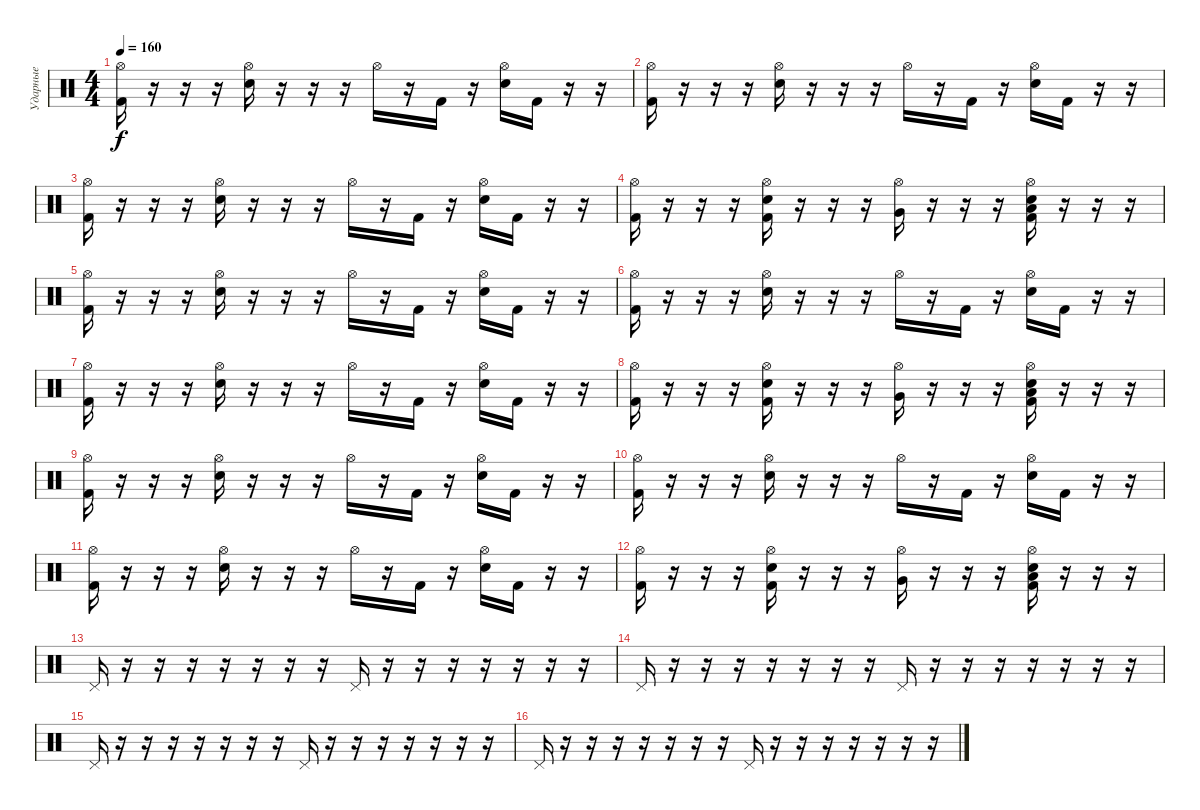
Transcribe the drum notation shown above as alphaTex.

\track ("Ударные" "Ударные") {instrument percussion}
\staff {score}
\articulation defaults
\ts (4 4)
\tempo 160
\clef neutral
\ks c
("Hi-Hat (open)" "Kick (hit) 2").16{dy f} r.16 r.16 r.16 ("Hi-Hat (open)" "Electric Snare (hit)").16 r.16 r.16 r.16 "Hi-Hat (open)".16 r.16 "Kick (hit) 2".16 r.16 ("Hi-Hat (open)" "Electric Snare (hit)").16 "Kick (hit) 2".16 r.16 r.16 |
("Hi-Hat (open)" "Kick (hit) 2").16 r.16 r.16 r.16 ("Hi-Hat (open)" "Electric Snare (hit)").16 r.16 r.16 r.16 "Hi-Hat (open)".16 r.16 "Kick (hit) 2".16 r.16 ("Hi-Hat (open)" "Electric Snare (hit)").16 "Kick (hit) 2".16 r.16 r.16 |
("Hi-Hat (open)" "Kick (hit) 2").16 r.16 r.16 r.16 ("Hi-Hat (open)" "Electric Snare (hit)").16 r.16 r.16 r.16 "Hi-Hat (open)".16 r.16 "Kick (hit) 2".16 r.16 ("Hi-Hat (open)" "Electric Snare (hit)").16 "Kick (hit) 2".16 r.16 r.16 |
("Hi-Hat (open)" "Kick (hit) 2").16 r.16 r.16 r.16 ("Hi-Hat (open)" "Electric Snare (hit)" "Kick (hit) 2").16 r.16 r.16 r.16 ("Hi-Hat (open)" "Very Low Tom (hit)").16 r.16 r.16 r.16 ("Hi-Hat (open)" "Electric Snare (hit)" "Kick (hit) 2" "Low Floor Tom (hit)").16 r.16 r.16 r.16 |
("Hi-Hat (open)" "Kick (hit) 2").16 r.16 r.16 r.16 ("Hi-Hat (open)" "Electric Snare (hit)").16 r.16 r.16 r.16 "Hi-Hat (open)".16 r.16 "Kick (hit) 2".16 r.16 ("Hi-Hat (open)" "Electric Snare (hit)").16 "Kick (hit) 2".16 r.16 r.16 |
("Hi-Hat (open)" "Kick (hit) 2").16 r.16 r.16 r.16 ("Hi-Hat (open)" "Electric Snare (hit)").16 r.16 r.16 r.16 "Hi-Hat (open)".16 r.16 "Kick (hit) 2".16 r.16 ("Hi-Hat (open)" "Electric Snare (hit)").16 "Kick (hit) 2".16 r.16 r.16 |
("Hi-Hat (open)" "Kick (hit) 2").16 r.16 r.16 r.16 ("Hi-Hat (open)" "Electric Snare (hit)").16 r.16 r.16 r.16 "Hi-Hat (open)".16 r.16 "Kick (hit) 2".16 r.16 ("Hi-Hat (open)" "Electric Snare (hit)").16 "Kick (hit) 2".16 r.16 r.16 |
("Hi-Hat (open)" "Kick (hit) 2").16 r.16 r.16 r.16 ("Hi-Hat (open)" "Electric Snare (hit)" "Kick (hit) 2").16 r.16 r.16 r.16 ("Hi-Hat (open)" "Very Low Tom (hit)").16 r.16 r.16 r.16 ("Hi-Hat (open)" "Electric Snare (hit)" "Kick (hit) 2" "Low Floor Tom (hit)").16 r.16 r.16 r.16 |
("Hi-Hat (open)" "Kick (hit) 2").16 r.16 r.16 r.16 ("Hi-Hat (open)" "Electric Snare (hit)").16 r.16 r.16 r.16 "Hi-Hat (open)".16 r.16 "Kick (hit) 2".16 r.16 ("Hi-Hat (open)" "Electric Snare (hit)").16 "Kick (hit) 2".16 r.16 r.16 |
("Hi-Hat (open)" "Kick (hit) 2").16 r.16 r.16 r.16 ("Hi-Hat (open)" "Electric Snare (hit)").16 r.16 r.16 r.16 "Hi-Hat (open)".16 r.16 "Kick (hit) 2".16 r.16 ("Hi-Hat (open)" "Electric Snare (hit)").16 "Kick (hit) 2".16 r.16 r.16 |
("Hi-Hat (open)" "Kick (hit) 2").16 r.16 r.16 r.16 ("Hi-Hat (open)" "Electric Snare (hit)").16 r.16 r.16 r.16 "Hi-Hat (open)".16 r.16 "Kick (hit) 2".16 r.16 ("Hi-Hat (open)" "Electric Snare (hit)").16 "Kick (hit) 2".16 r.16 r.16 |
("Hi-Hat (open)" "Kick (hit) 2").16 r.16 r.16 r.16 ("Hi-Hat (open)" "Electric Snare (hit)" "Kick (hit) 2").16 r.16 r.16 r.16 ("Hi-Hat (open)" "Very Low Tom (hit)").16 r.16 r.16 r.16 ("Hi-Hat (open)" "Electric Snare (hit)" "Kick (hit) 2" "Low Floor Tom (hit)").16 r.16 r.16 r.16 |
"Pedal Hi-Hat (hit)".16 r.16 r.16 r.16 r.16 r.16 r.16 r.16 "Pedal Hi-Hat (hit)".16 r.16 r.16 r.16 r.16 r.16 r.16 r.16 |
"Pedal Hi-Hat (hit)".16 r.16 r.16 r.16 r.16 r.16 r.16 r.16 "Pedal Hi-Hat (hit)".16 r.16 r.16 r.16 r.16 r.16 r.16 r.16 |
"Pedal Hi-Hat (hit)".16 r.16 r.16 r.16 r.16 r.16 r.16 r.16 "Pedal Hi-Hat (hit)".16 r.16 r.16 r.16 r.16 r.16 r.16 r.16 |
"Pedal Hi-Hat (hit)".16 r.16 r.16 r.16 r.16 r.16 r.16 r.16 "Pedal Hi-Hat (hit)".16 r.16 r.16 r.16 r.16 r.16 r.16 r.16
